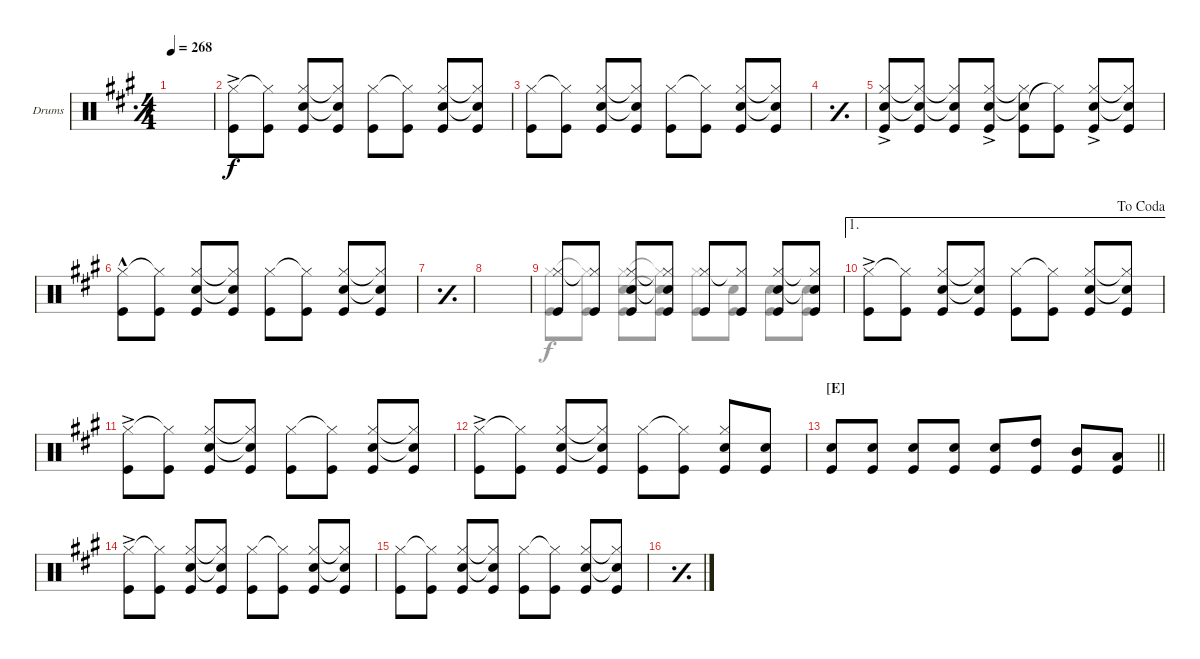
\defaultSystemsLayout 4
\bracketExtendMode groupsimilarinstruments
\firstSystemTrackNameOrientation horizontal
\otherSystemsTrackNameOrientation horizontal
\track ("Stefan Kaufmann" "Drums") {instrument percussion}
\staff {score}
\articulation defaults
\voice
\ts (4 4)
\tempo 268
\clef neutral
\simile simple
\ks a
|
("Kick (hit)" "Hi-Hat (closed)"{ac}).8 ("Kick (hit)" "Hi-Hat (closed)"{t}).8 ("Kick (hit)" "Hi-Hat (closed)" "Snare (hit) 2").8 ("Kick (hit)" "Hi-Hat (closed)"{t} "Snare (hit) 2"{t}).8 ("Kick (hit)" "Hi-Hat (closed)").8 ("Kick (hit)" "Hi-Hat (closed)"{t}).8 ("Kick (hit)" "Hi-Hat (closed)" "Snare (hit) 2").8 ("Kick (hit)" "Hi-Hat (closed)"{t} "Snare (hit) 2"{t}).8 |
("Kick (hit)" "Hi-Hat (closed)").8 ("Kick (hit)" "Hi-Hat (closed)"{t}).8 ("Kick (hit)" "Hi-Hat (closed)" "Snare (hit) 2").8 ("Kick (hit)" "Hi-Hat (closed)"{t} "Snare (hit) 2"{t}).8 ("Kick (hit)" "Hi-Hat (closed)").8 ("Kick (hit)" "Hi-Hat (closed)"{t}).8 ("Kick (hit)" "Hi-Hat (closed)" "Snare (hit) 2").8 ("Kick (hit)" "Hi-Hat (closed)"{t} "Snare (hit) 2"{t}).8 |
\simile simple
|
\simile none
("Kick (hit)" "Hi-Hat (closed)"{ac} "Snare (hit) 2").8 ("Kick (hit)" "Hi-Hat (closed)"{t} "Snare (hit) 2"{t}).8 ("Kick (hit)" "Hi-Hat (closed)"{t} "Snare (hit) 2"{t}).8 ("Kick (hit)" "Snare (hit) 2" "Hi-Hat (closed)"{ac}).8 ("Kick (hit)" "Snare (hit) 2"{t} "Hi-Hat (closed)"{t}).8 ("Kick (hit)" "Hi-Hat (closed)"{t}).8 ("Kick (hit)" "Hi-Hat (closed)"{ac} "Snare (hit) 2").8 ("Kick (hit)" "Hi-Hat (closed)"{t} "Snare (hit) 2"{t}).8 |
("Hi-Hat (closed)"{hac} "Kick (hit)").8 ("Hi-Hat (closed)"{t} "Kick (hit)").8 ("Hi-Hat (closed)" "Kick (hit)" "Snare (hit) 2").8 ("Hi-Hat (closed)"{t} "Kick (hit)" "Snare (hit) 2"{t}).8 ("Hi-Hat (closed)" "Kick (hit)").8 ("Hi-Hat (closed)"{t} "Kick (hit)").8 ("Hi-Hat (closed)" "Kick (hit)" "Snare (hit) 2").8 ("Hi-Hat (closed)"{t} "Kick (hit)" "Snare (hit) 2"{t}).8 |
\simile simple
|
|
\simile none
("Kick (hit)" "Hi-Hat (closed)").8 ("Kick (hit)" "Hi-Hat (closed)"{t}).8 ("Kick (hit)" "Hi-Hat (closed)" "Snare (hit) 2").8 ("Kick (hit)" "Hi-Hat (closed)"{t} "Snare (hit) 2"{t}).8 ("Kick (hit)" "Hi-Hat (closed)").8 ("Kick (hit)" "Hi-Hat (closed)"{t}).8 ("Kick (hit)" "Hi-Hat (closed)" "Snare (hit) 2").8 ("Kick (hit)" "Hi-Hat (closed)"{t} "Snare (hit) 2"{t}).8 |
\ae 1
\jump dacoda
("Hi-Hat (closed)"{ac} "Kick (hit)").8 ("Hi-Hat (closed)"{t} "Kick (hit)").8 ("Hi-Hat (closed)" "Kick (hit)" "Snare (hit) 2").8 ("Hi-Hat (closed)"{t} "Kick (hit)" "Snare (hit) 2"{t}).8 ("Hi-Hat (closed)" "Kick (hit)").8 ("Hi-Hat (closed)"{t} "Kick (hit)").8 ("Hi-Hat (closed)" "Kick (hit)" "Snare (hit) 2").8 ("Hi-Hat (closed)"{t} "Kick (hit)" "Snare (hit) 2"{t}).8 |
\scale
0.243499 ("Kick (hit)"{ac} "Hi-Hat (closed)"{ac}).8 ("Kick (hit)" "Hi-Hat (closed)"{t}).8 ("Kick (hit)" "Hi-Hat (closed)" "Snare (hit) 2").8 ("Kick (hit)" "Hi-Hat (closed)"{t} "Snare (hit) 2"{t}).8 ("Kick (hit)" "Hi-Hat (closed)").8 ("Kick (hit)" "Hi-Hat (closed)"{t}).8 ("Kick (hit)" "Hi-Hat (closed)" "Snare (hit) 2").8 ("Kick (hit)" "Hi-Hat (closed)"{t} "Snare (hit) 2"{t}).8 |
\scale
0.189125 ("Kick (hit)"{ac} "Hi-Hat (closed)"{ac}).8 ("Kick (hit)" "Hi-Hat (closed)"{t}).8 ("Kick (hit)" "Hi-Hat (closed)" "Snare (hit) 2").8 ("Kick (hit)" "Hi-Hat (closed)"{t} "Snare (hit) 2"{t}).8 ("Kick (hit)" "Hi-Hat (closed)").8 ("Kick (hit)" "Hi-Hat (closed)"{t}).8 ("Kick (hit)" "Hi-Hat (closed)" "Snare (hit) 2").8 ("Kick (hit)" "Snare (hit) 2").8 |
\section ("E" "")
\scale
0.189125
\barLineRight lightlight
("Kick (hit)" "Snare (hit) 2").8 ("Kick (hit)" "Snare (hit) 2").8 ("Kick (hit)" "Snare (hit) 2").8 ("Kick (hit)" "Snare (hit) 2").8 ("Kick (hit)" "Snare (hit) 2").8 ("Kick (hit)" "High Tom (hit)").8 ("Kick (hit)" "Mid Tom (hit)").8 ("Kick (hit)" "Low Tom (hit)").8 |
\scale
0.189125 ("Kick (hit)"{ac} "Hi-Hat (closed)"{ac}).8 ("Kick (hit)" "Hi-Hat (closed)"{t}).8 ("Kick (hit)" "Hi-Hat (closed)" "Snare (hit) 2").8 ("Kick (hit)" "Hi-Hat (closed)"{t} "Snare (hit) 2"{t}).8 ("Kick (hit)" "Hi-Hat (closed)").8 ("Kick (hit)" "Hi-Hat (closed)"{t}).8 ("Kick (hit)" "Hi-Hat (closed)" "Snare (hit) 2").8 ("Kick (hit)" "Hi-Hat (closed)"{t} "Snare (hit) 2"{t}).8 |
\scale
0.189125 ("Kick (hit)" "Hi-Hat (closed)").8 ("Kick (hit)" "Hi-Hat (closed)"{t}).8 ("Kick (hit)" "Hi-Hat (closed)" "Snare (hit) 2").8 ("Kick (hit)" "Hi-Hat (closed)"{t} "Snare (hit) 2"{t}).8 ("Kick (hit)" "Hi-Hat (closed)").8 ("Kick (hit)" "Hi-Hat (closed)"{t}).8 ("Kick (hit)" "Hi-Hat (closed)" "Snare (hit) 2").8 ("Kick (hit)" "Hi-Hat (closed)"{t} "Snare (hit) 2"{t}).8 |
\simile simple
\voice
\clef neutral
\ottava regular
\simile simple
\ks a
|
\simile none
|
|
\simile simple
|
\simile none
|
|
\simile simple
|
|
\simile none
("Kick (hit)" "Hi-Hat (closed)").8 ("Kick (hit)" "Hi-Hat (closed)"{t}).8 ("Kick (hit)" "Hi-Hat (closed)" "Snare (hit) 2").8 ("Kick (hit)" "Hi-Hat (closed)"{t} "Snare (hit) 2"{t}).8 ("Kick (hit)" "Hi-Hat (closed)").8 ("Kick (hit)" "Snare (hit) 2").8 ("Kick (hit)" "Snare (hit) 2").8 ("Kick (hit)" "Snare (hit) 2").8 |
|
\scale
0.243499 |
\scale
0.189125 |
\scale
0.189125
\barLineRight lightlight
|
\scale
0.189125 |
\scale
0.189125 |
\simile simple
